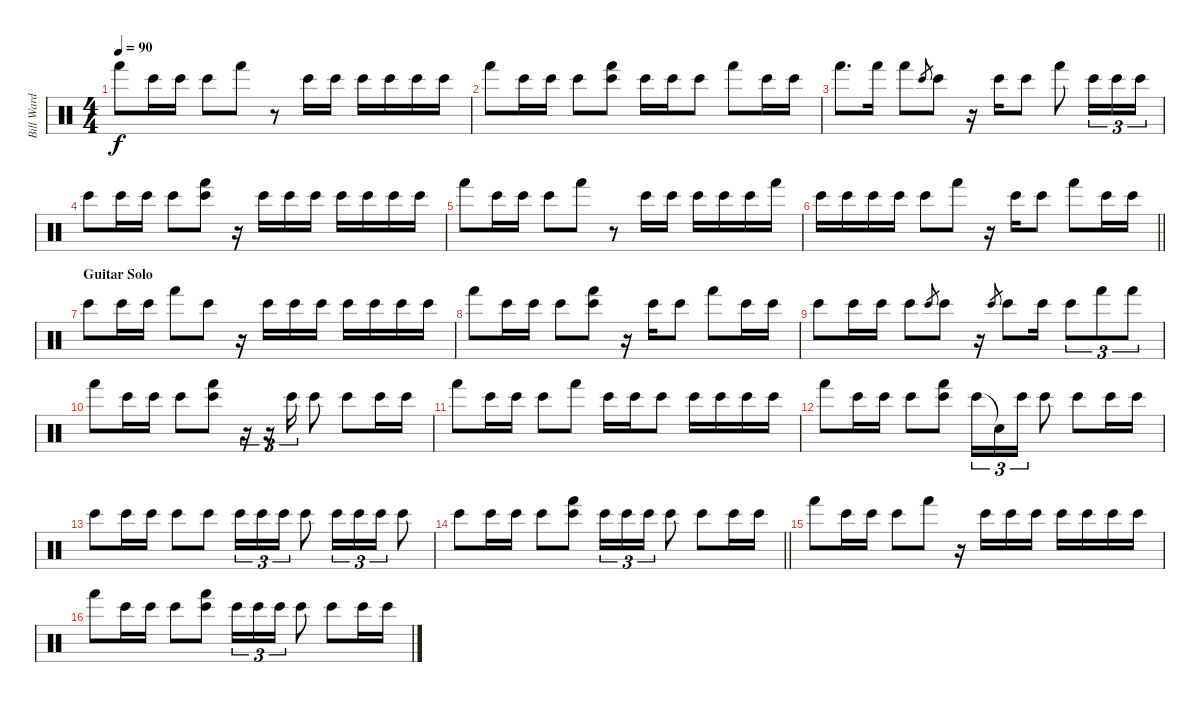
\track ("Bill Ward" "Bill Ward") {instrument percussion}
\staff {score}
\articulation defaults
\ts (4 4)
\tempo 90
\clef neutral
\ks c "Hand (hit)".8{dy f} "Bongo High (hit)".16 "Bongo High (hit)".16 "Bongo High (hit)".8 "Hand (hit)".8
r.8 "Bongo High (hit)".16 "Bongo High (hit)".16 "Bongo High (hit)".16 "Bongo High (hit)".16 "Bongo High (hit)".16 "Bongo High (hit)".16 |
"Hand (hit)".8 "Bongo High (hit)".16 "Bongo High (hit)".16 "Bongo High (hit)".8 ("Bongo High (hit)" "Hand (hit)").8 "Bongo High (hit)".16 "Bongo High (hit)".16 "Bongo High (hit)".8 "Hand (hit)".8 "Bongo High (hit)".16 "Bongo High (hit)".16 |
"Hand (hit)".8{d} "Hand (hit)".16 "Hand (hit)".8 "Bongo High (hit)".8{gr} "Bongo High (hit)".8 r.16 "Bongo High (hit)".16 "Bongo High (hit)".8 "Hand (hit)".8 "Bongo High (hit)".16{tu (3 2)} "Bongo High (hit)".16{tu (3 2)} "Bongo High (hit)".16{tu (3 2)} |
"Bongo High (hit)".8 "Bongo High (hit)".16 "Bongo High (hit)".16 "Bongo High (hit)".8 ("Bongo High (hit)" "Hand (hit)").8 r.16 "Bongo High (hit)".16 "Bongo High (hit)".16 "Bongo High (hit)".16 "Bongo High (hit)".16 "Bongo High (hit)".16 "Bongo High (hit)".16 "Bongo High (hit)".16 |
"Hand (hit)".8 "Bongo High (hit)".16 "Bongo High (hit)".16 "Bongo High (hit)".8 "Hand (hit)".8 r.8 "Bongo High (hit)".16 "Bongo High (hit)".16 "Bongo High (hit)".16 "Bongo High (hit)".16 "Bongo High (hit)".16 "Hand (hit)".16 |
\barLineRight lightlight "Bongo High (hit)".16 "Bongo High (hit)".16 "Bongo High (hit)".16 "Bongo High (hit)".16 "Bongo High (hit)".8 "Hand (hit)".8
r.16 "Bongo High (hit)".16 "Bongo High (hit)".8 "Hand (hit)".8 "Bongo High (hit)".16 "Bongo High (hit)".16 |
\section ("" "Guitar Solo")
"Bongo High (hit)".8 "Bongo High (hit)".16 "Bongo High (hit)".16 "Hand (hit)".8 "Bongo High (hit)".8 r.16 "Bongo High (hit)".16 "Bongo High (hit)".16 "Bongo High (hit)".16 "Bongo High (hit)".16 "Bongo High (hit)".16 "Bongo High (hit)".16 "Bongo High (hit)".16 |
"Hand (hit)".8 "Bongo High (hit)".16 "Bongo High (hit)".16 "Bongo High (hit)".8 ("Bongo High (hit)" "Hand (hit)").8 r.16 "Bongo High (hit)".16 "Bongo High (hit)".8 "Hand (hit)".8 "Bongo High (hit)".16 "Bongo High (hit)".16 |
"Bongo High (hit)".8 "Bongo High (hit)".16 "Bongo High (hit)".16 "Bongo High (hit)".8 "Bongo High (hit)".8{gr} "Bongo High (hit)".8 r.16 "Bongo High (hit)".8{gr} "Bongo High (hit)".8 "Bongo High (hit)".16 "Bongo High (hit)".8{tu (3 2)} "Hand (hit)".8{tu (3 2)} "Hand (hit)".8{tu (3 2)} |
"Hand (hit)".8 "Bongo High (hit)".16 "Bongo High (hit)".16 "Bongo High (hit)".8 ("Bongo High (hit)" "Hand (hit)").8 r.16{tu (3 2)} r.16{tu (3 2)} "Bongo High (hit)".16{tu (3 2)} "Bongo High (hit)".8 "Bongo High (hit)".8 "Bongo High (hit)".16 "Bongo High (hit)".16 |
"Hand (hit)".8 "Bongo High (hit)".16 "Bongo High (hit)".16 "Bongo High (hit)".8 "Hand (hit)".8 "Bongo High (hit)".16 "Bongo High (hit)".16 "Bongo High (hit)".8 "Bongo High (hit)".16 "Bongo High (hit)".16 "Bongo High (hit)".16 "Bongo High (hit)".16 |
"Hand (hit)".8 "Bongo High (hit)".16 "Bongo High (hit)".16 "Bongo High (hit)".8 ("Bongo High (hit)" "Hand (hit)").8 "Bongo High (hit)".16{tu (3 2)} "Snare (hit)"{t}.16{tu (3 2)} "Bongo High (hit)".16{tu (3 2)} "Bongo High (hit)".8 "Bongo High (hit)".8 "Bongo High (hit)".16 "Bongo High (hit)".16 |
"Bongo High (hit)".8 "Bongo High (hit)".16 "Bongo High (hit)".16 "Bongo High (hit)".8 "Bongo High (hit)".8 "Bongo High (hit)".16{tu (3 2)} "Bongo High (hit)".16{tu (3 2)} "Bongo High (hit)".16{tu (3 2)} "Bongo High (hit)".8 "Bongo High (hit)".16{tu (3 2)} "Bongo High (hit)".16{tu (3 2)} "Bongo High (hit)".16{tu (3 2)} "Bongo High (hit)".8 |
\barLineRight lightlight "Bongo High (hit)".8 "Bongo High (hit)".16 "Bongo High (hit)".16 "Bongo High (hit)".8
("Bongo High (hit)" "Hand (hit)").8 "Bongo High (hit)".16{tu (3 2)} "Bongo High (hit)".16{tu (3 2)} "Bongo High (hit)".16{tu (3 2)} "Bongo High (hit)".8 "Bongo High (hit)".8 "Bongo High (hit)".16 "Bongo High (hit)".16 |
"Hand (hit)".8 "Bongo High (hit)".16 "Bongo High (hit)".16 "Bongo High (hit)".8 "Hand (hit)".8 r.16 "Bongo High (hit)".16 "Bongo High (hit)".16 "Bongo High (hit)".16 "Bongo High (hit)".16 "Bongo High (hit)".16 "Bongo High (hit)".16 "Bongo High (hit)".16 |
"Hand (hit)".8 "Bongo High (hit)".16 "Bongo High (hit)".16 "Bongo High (hit)".8 ("Bongo High (hit)" "Hand (hit)").8 "Bongo High (hit)".16{tu (3 2)} "Bongo High (hit)".16{tu (3 2)} "Bongo High (hit)".16{tu (3 2)} "Bongo High (hit)".8 "Bongo High (hit)".8 "Bongo High (hit)".16 "Bongo High (hit)".16
